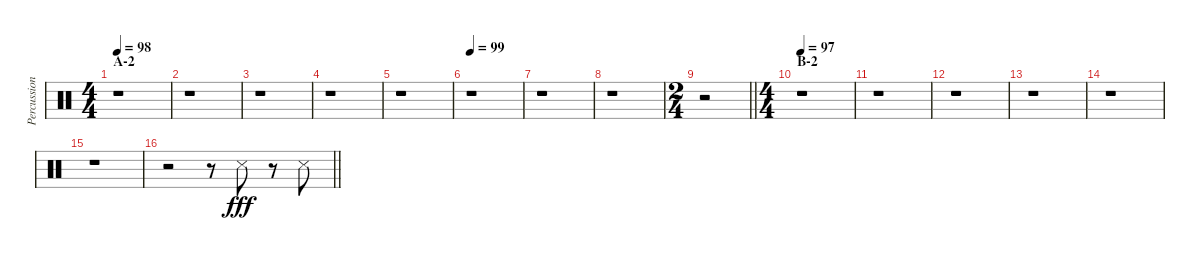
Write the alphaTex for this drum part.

\track ("Percussion" "Percussion") {instrument percussion}
\staff {score}
\articulation defaults
\ts (4 4)
\section ("" "A-2")
\tempo 98
\clef neutral
\ks c
r.1{dy fff} |
r.1 |
r.1 |
r.1 |
r.1 |
\tempo 99
r.1 |
r.1 |
r.1 |
\ts (2 4)
\barLineRight lightlight
r.2 |
\ts (4 4)
\section ("" "B-2")
\tempo 97
r.1 |
r.1 |
r.1 |
r.1 |
r.1 |
r.1 |
\barLineRight lightlight
r.2 r.8 "Snare (side stick) 3".8 r.8 "Snare (side stick) 3".8
